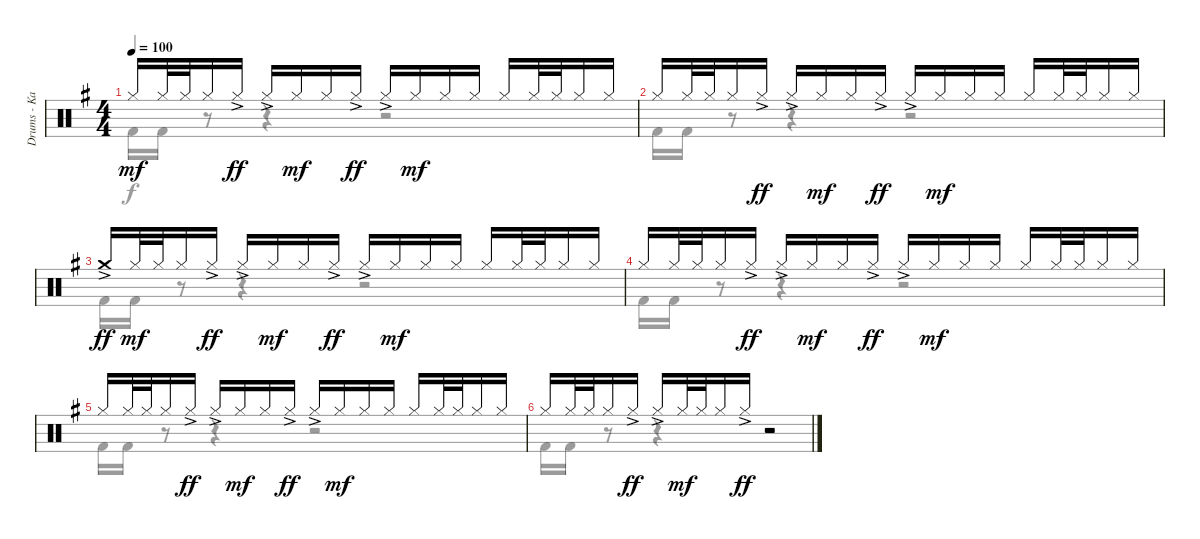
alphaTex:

\track ("Drums - Kai" "Drums - Ka") {instrument percussion}
\staff {score}
\articulation defaults
\voice
\ts (4 4)
\tempo 100
\clef neutral
\ks g "Hi-Hat (closed)".16{dy mf} "Hi-Hat (closed)".32 "Hi-Hat (closed)".32 "Hi-Hat (closed)".16 "Hi-Hat (closed)"{ac}.16{dy ff} "Hi-Hat (closed)"{ac}.16 "Hi-Hat (closed)".16{dy mf} "Hi-Hat (closed)".16 "Hi-Hat (closed)"{ac}.16{dy ff} "Hi-Hat (closed)"{ac}.16 "Hi-Hat (closed)".16{dy mf} "Hi-Hat (closed)".16 "Hi-Hat (closed)".16 "Hi-Hat (closed)".16 "Hi-Hat (closed)".32 "Hi-Hat (closed)".32 "Hi-Hat (closed)".16 "Hi-Hat (closed)".16
|
"Hi-Hat (closed)".16 "Hi-Hat (closed)".32 "Hi-Hat (closed)".32 "Hi-Hat (closed)".16 "Hi-Hat (closed)"{ac}.16{dy ff} "Hi-Hat (closed)"{ac}.16 "Hi-Hat (closed)".16{dy mf} "Hi-Hat (closed)".16 "Hi-Hat (closed)"{ac}.16{dy ff} "Hi-Hat (closed)"{ac}.16 "Hi-Hat (closed)".16{dy mf} "Hi-Hat (closed)".16 "Hi-Hat (closed)".16 "Hi-Hat (closed)".16 "Hi-Hat (closed)".32 "Hi-Hat (closed)".32 "Hi-Hat (closed)".16 "Hi-Hat (closed)".16 |
"Crash medium (hit)"{ac}.16{dy ff} "Hi-Hat (closed)".32{dy mf} "Hi-Hat (closed)".32 "Hi-Hat (closed)".16 "Hi-Hat (closed)"{ac}.16{dy ff} "Hi-Hat (closed)"{ac}.16 "Hi-Hat (closed)".16{dy mf} "Hi-Hat (closed)".16 "Hi-Hat (closed)"{ac}.16{dy ff} "Hi-Hat (closed)"{ac}.16 "Hi-Hat (closed)".16{dy mf} "Hi-Hat (closed)".16 "Hi-Hat (closed)".16 "Hi-Hat (closed)".16 "Hi-Hat (closed)".32 "Hi-Hat (closed)".32 "Hi-Hat (closed)".16 "Hi-Hat (closed)".16 |
"Hi-Hat (closed)".16 "Hi-Hat (closed)".32 "Hi-Hat (closed)".32 "Hi-Hat (closed)".16 "Hi-Hat (closed)"{ac}.16{dy ff} "Hi-Hat (closed)"{ac}.16 "Hi-Hat (closed)".16{dy mf} "Hi-Hat (closed)".16 "Hi-Hat (closed)"{ac}.16{dy ff} "Hi-Hat (closed)"{ac}.16 "Hi-Hat (closed)".16{dy mf} "Hi-Hat (closed)".16 "Hi-Hat (closed)".16 "Hi-Hat (closed)".16 "Hi-Hat (closed)".32 "Hi-Hat (closed)".32 "Hi-Hat (closed)".16 "Hi-Hat (closed)".16 |
"Hi-Hat (closed)".16 "Hi-Hat (closed)".32 "Hi-Hat (closed)".32 "Hi-Hat (closed)".16 "Hi-Hat (closed)"{ac}.16{dy ff} "Hi-Hat (closed)"{ac}.16 "Hi-Hat (closed)".16{dy mf} "Hi-Hat (closed)".16 "Hi-Hat (closed)"{ac}.16{dy ff} "Hi-Hat (closed)"{ac}.16 "Hi-Hat (closed)".16{dy mf} "Hi-Hat (closed)".16 "Hi-Hat (closed)".16 "Hi-Hat (closed)".16 "Hi-Hat (closed)".32 "Hi-Hat (closed)".32 "Hi-Hat (closed)".16 "Hi-Hat (closed)".16 |
"Hi-Hat (closed)".16 "Hi-Hat (closed)".32 "Hi-Hat (closed)".32 "Hi-Hat (closed)".16 "Hi-Hat (closed)"{ac}.16{dy ff} "Hi-Hat (closed)"{ac}.16 "Hi-Hat (closed)".32{dy mf} "Hi-Hat (closed)".32 "Hi-Hat (closed)".16 "Hi-Hat (closed)"{ac}.16{dy ff} r.2
\voice
\clef neutral
\ottava regular
\simile none
\ks g "Kick (hit) 2".16{dy f} "Kick (hit) 2".16
r.8 r.4 r.2 |
"Kick (hit) 2".16 "Kick (hit) 2".16 r.8 r.4 r.2 |
"Kick (hit) 2".16 "Kick (hit) 2".16 r.8 r.4 r.2 |
"Kick (hit) 2".16 "Kick (hit) 2".16 r.8 r.4 r.2 |
"Kick (hit) 2".16 "Kick (hit) 2".16 r.8 r.4 r.2 |
"Kick (hit) 2".16 "Kick (hit) 2".16 r.8 r.4 r.2
